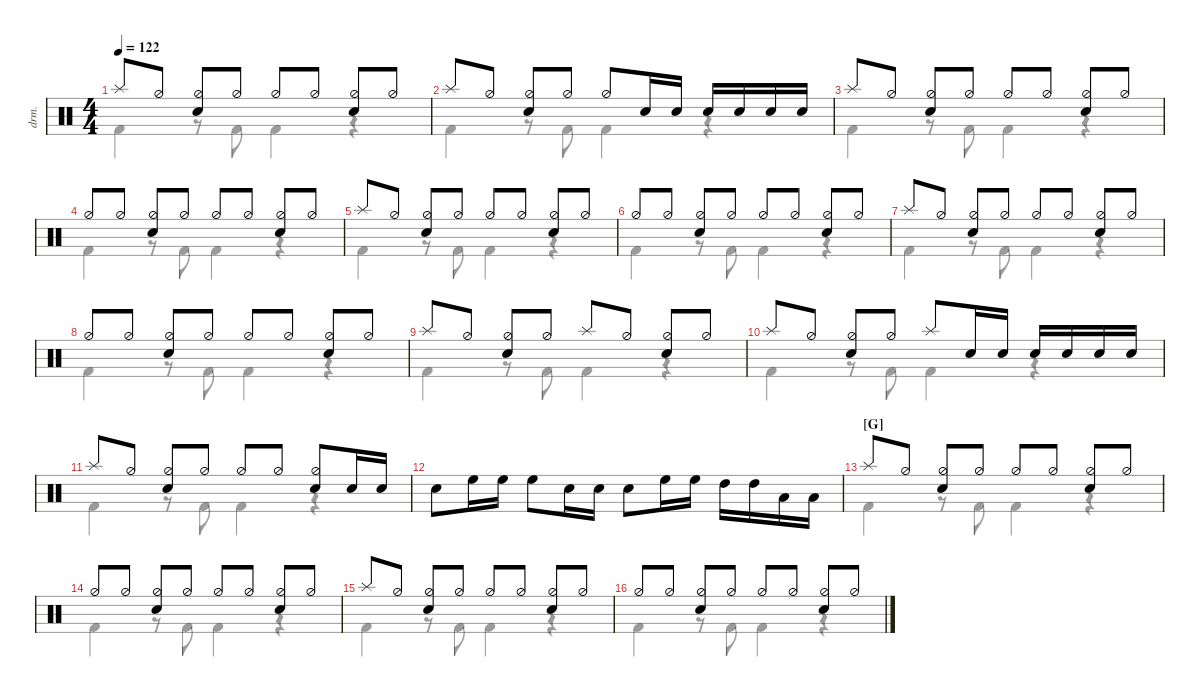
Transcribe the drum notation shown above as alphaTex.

\defaultSystemsLayout 4
\hideDynamics
\bracketExtendMode nobrackets
\track ("Drumkit" "drm.") {defaultSystemsLayout 4 instrument percussion}
\staff {score}
\articulation defaults
\voice
\ts (4 4)
\tempo 122
\clef neutral
\ks c "Splash (hit)".8{dy mf beam Up} "Hi-Hat (half)".8{beam Up}
("Hi-Hat (half)" "Snare (hit) 2").8{beam Up} "Hi-Hat (half)".8{beam Up} "Hi-Hat (half)".8{beam Up} "Hi-Hat (half)".8{beam Up} ("Hi-Hat (half)" "Snare (hit) 2").8{beam Up} "Hi-Hat (half)".8{beam Up} |
"Splash (hit)".8{beam Up} "Hi-Hat (half)".8{beam Up} ("Hi-Hat (half)" "Snare (hit) 2").8{beam Up} "Hi-Hat (half)".8{beam Up} "Hi-Hat (half)".8{beam Up} "Snare (hit) 2".16{beam Up} "Snare (hit) 2".16{beam Up} "Snare (hit) 2".16{beam Up} "Snare (hit) 2".16{beam Up} "Snare (hit) 2".16{beam Up} "Snare (hit) 2".16{beam Up} |
"Splash (hit)".8{beam Up} "Hi-Hat (half)".8{beam Up} ("Hi-Hat (half)" "Snare (hit) 2").8{beam Up} "Hi-Hat (half)".8{beam Up} "Hi-Hat (half)".8{beam Up} "Hi-Hat (half)".8{beam Up} ("Hi-Hat (half)" "Snare (hit) 2").8{beam Up} "Hi-Hat (half)".8{beam Up} |
"Hi-Hat (half)".8{beam Up} "Hi-Hat (half)".8{beam Up} ("Hi-Hat (half)" "Snare (hit) 2").8{beam Up} "Hi-Hat (half)".8{beam Up} "Hi-Hat (half)".8{beam Up} "Hi-Hat (half)".8{beam Up} ("Hi-Hat (half)" "Snare (hit) 2").8{beam Up} "Hi-Hat (half)".8{beam Up} |
"Splash (hit)".8{beam Up} "Hi-Hat (half)".8{beam Up} ("Hi-Hat (half)" "Snare (hit) 2").8{beam Up} "Hi-Hat (half)".8{beam Up} "Hi-Hat (half)".8{beam Up} "Hi-Hat (half)".8{beam Up} ("Hi-Hat (half)" "Snare (hit) 2").8{beam Up} "Hi-Hat (half)".8{beam Up} |
"Hi-Hat (half)".8{beam Up} "Hi-Hat (half)".8{beam Up} ("Hi-Hat (half)" "Snare (hit) 2").8{beam Up} "Hi-Hat (half)".8{beam Up} "Hi-Hat (half)".8{beam Up} "Hi-Hat (half)".8{beam Up} ("Hi-Hat (half)" "Snare (hit) 2").8{beam Up} "Hi-Hat (half)".8{beam Up} |
"Splash (hit)".8{beam Up} "Hi-Hat (half)".8{beam Up} ("Hi-Hat (half)" "Snare (hit) 2").8{beam Up} "Hi-Hat (half)".8{beam Up} "Hi-Hat (half)".8{beam Up} "Hi-Hat (half)".8{beam Up} ("Hi-Hat (half)" "Snare (hit) 2").8{beam Up} "Hi-Hat (half)".8{beam Up} |
"Hi-Hat (half)".8{beam Up} "Hi-Hat (half)".8{beam Up} ("Hi-Hat (half)" "Snare (hit) 2").8{beam Up} "Hi-Hat (half)".8{beam Up} "Hi-Hat (half)".8{beam Up} "Hi-Hat (half)".8{beam Up} ("Hi-Hat (half)" "Snare (hit) 2").8{beam Up} "Hi-Hat (half)".8{beam Up} |
"Splash (hit)".8{beam Up} "Hi-Hat (half)".8{beam Up} ("Hi-Hat (half)" "Snare (hit) 2").8{beam Up} "Hi-Hat (half)".8{beam Up} "Splash (hit)".8{beam Up} "Hi-Hat (half)".8{beam Up} ("Hi-Hat (half)" "Snare (hit) 2").8{beam Up} "Hi-Hat (half)".8{beam Up} |
"Splash (hit)".8{beam Up} "Hi-Hat (half)".8{beam Up} ("Hi-Hat (half)" "Snare (hit) 2").8{beam Up} "Hi-Hat (half)".8{beam Up} "Splash (hit)".8{beam Up} "Snare (hit) 2".16{beam Up} "Snare (hit) 2".16{beam Up} "Snare (hit) 2".16{beam Up} "Snare (hit) 2".16{beam Up} "Snare (hit) 2".16{beam Up} "Snare (hit) 2".16{beam Up} |
"Splash (hit)".8{beam Up} "Hi-Hat (half)".8{beam Up} ("Hi-Hat (half)" "Snare (hit) 2").8{beam Up} "Hi-Hat (half)".8{beam Up} "Hi-Hat (half)".8{beam Up} "Hi-Hat (half)".8{beam Up} ("Hi-Hat (half)" "Snare (hit) 2").8{beam Up} "Snare (hit) 2".16{beam Up} "Snare (hit) 2".16{beam Up} |
"Snare (hit) 2".8{beam Down} "High Floor Tom (hit)".16{beam Down} "High Floor Tom (hit)".16{beam Down} "High Floor Tom (hit)".8{beam Down} "Snare (hit) 2".16{beam Down} "Snare (hit) 2".16{beam Down} "Snare (hit) 2".8{beam Down} "High Floor Tom (hit)".16{beam Down} "High Floor Tom (hit)".16{beam Down} "High Tom (hit)".16{beam Down} "High Tom (hit)".16{beam Down} "Low Tom (hit)".16{beam Down} "Low Tom (hit)".16{beam Down} |
\section ("G" "")
"Splash (hit)".8{beam Up} "Hi-Hat (half)".8{beam Up} ("Hi-Hat (half)" "Snare (hit) 2").8{beam Up} "Hi-Hat (half)".8{beam Up} "Hi-Hat (half)".8{beam Up} "Hi-Hat (half)".8{beam Up} ("Hi-Hat (half)" "Snare (hit) 2").8{beam Up} "Hi-Hat (half)".8{beam Up} |
"Hi-Hat (half)".8{beam Up} "Hi-Hat (half)".8{beam Up} ("Hi-Hat (half)" "Snare (hit) 2").8{beam Up} "Hi-Hat (half)".8{beam Up} "Hi-Hat (half)".8{beam Up} "Hi-Hat (half)".8{beam Up} ("Hi-Hat (half)" "Snare (hit) 2").8{beam Up} "Hi-Hat (half)".8{beam Up} |
"Splash (hit)".8{beam Up} "Hi-Hat (half)".8{beam Up} ("Hi-Hat (half)" "Snare (hit) 2").8{beam Up} "Hi-Hat (half)".8{beam Up} "Hi-Hat (half)".8{beam Up} "Hi-Hat (half)".8{beam Up} ("Hi-Hat (half)" "Snare (hit) 2").8{beam Up} "Hi-Hat (half)".8{beam Up} |
"Hi-Hat (half)".8{beam Up} "Hi-Hat (half)".8{beam Up} ("Hi-Hat (half)" "Snare (hit) 2").8{beam Up} "Hi-Hat (half)".8{beam Up} "Hi-Hat (half)".8{beam Up} "Hi-Hat (half)".8{beam Up} ("Hi-Hat (half)" "Snare (hit) 2").8{beam Up} "Hi-Hat (half)".8{beam Up}
\voice
\clef neutral
\ottava regular
\simile none
\ks c
|
|
|
|
|
|
|
|
|
|
|
|
|
|
|
\voice
\clef neutral
\ottava regular
\simile none
\ks c "Kick (hit) 2".4{dy mf beam Down}
r.8{beam Down} "Kick (hit) 2".8{beam Down} "Kick (hit) 2".4{beam Down} r.4{beam Down} |
"Kick (hit) 2".4{beam Down} r.8{beam Down} "Kick (hit) 2".8{beam Down} "Kick (hit) 2".4{beam Down} r.4{beam Down} |
"Kick (hit) 2".4{beam Down} r.8{beam Down} "Kick (hit) 2".8{beam Down} "Kick (hit) 2".4{beam Down} r.4{beam Down} |
"Kick (hit) 2".4{beam Down} r.8{beam Down} "Kick (hit) 2".8{beam Down} "Kick (hit) 2".4{beam Down} r.4{beam Down} |
"Kick (hit) 2".4{beam Down} r.8{beam Down} "Kick (hit) 2".8{beam Down} "Kick (hit) 2".4{beam Down} r.4{beam Down} |
"Kick (hit) 2".4{beam Down} r.8{beam Down} "Kick (hit) 2".8{beam Down} "Kick (hit) 2".4{beam Down} r.4{beam Down} |
"Kick (hit) 2".4{beam Down} r.8{beam Down} "Kick (hit) 2".8{beam Down} "Kick (hit) 2".4{beam Down} r.4{beam Down} |
"Kick (hit) 2".4{beam Down} r.8{beam Down} "Kick (hit) 2".8{beam Down} "Kick (hit) 2".4{beam Down} r.4{beam Down} |
"Kick (hit) 2".4{beam Down} r.8{beam Down} "Kick (hit) 2".8{beam Down} "Kick (hit) 2".4{beam Down} r.4{beam Down} |
"Kick (hit) 2".4{beam Down} r.8{beam Down} "Kick (hit) 2".8{beam Down} "Kick (hit) 2".4{beam Down} r.4{beam Down} |
"Kick (hit) 2".4{beam Down} r.8{beam Down} "Kick (hit) 2".8{beam Down} "Kick (hit) 2".4{beam Down} r.4{beam Down} |
|
"Kick (hit) 2".4{beam Down} r.8{beam Down} "Kick (hit) 2".8{beam Down} "Kick (hit) 2".4{beam Down} r.4{beam Down} |
"Kick (hit) 2".4{beam Down} r.8{beam Down} "Kick (hit) 2".8{beam Down} "Kick (hit) 2".4{beam Down} r.4{beam Down} |
"Kick (hit) 2".4{beam Down} r.8{beam Down} "Kick (hit) 2".8{beam Down} "Kick (hit) 2".4{beam Down} r.4{beam Down} |
"Kick (hit) 2".4{beam Down} r.8{beam Down} "Kick (hit) 2".8{beam Down} "Kick (hit) 2".4{beam Down} r.4{beam Down}
